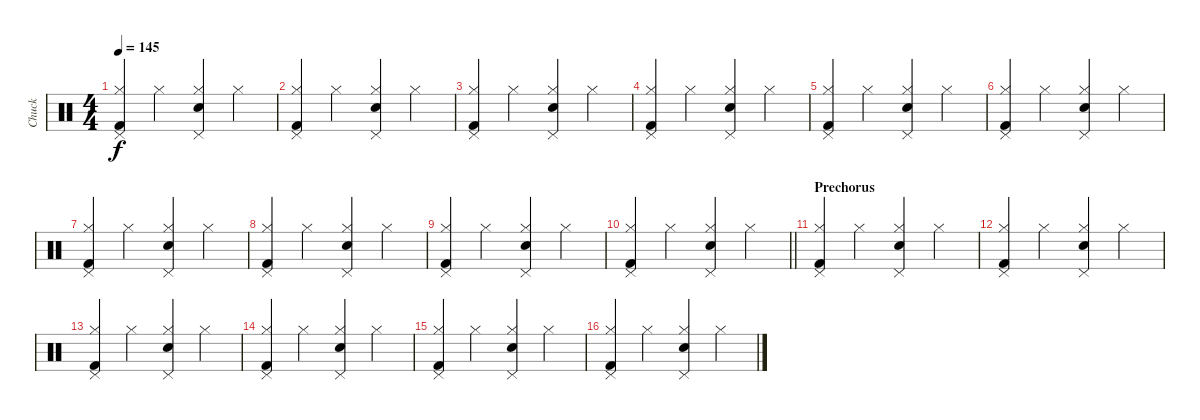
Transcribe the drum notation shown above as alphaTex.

\track ("Chuck" "Chuck") {instrument percussion}
\staff {score}
\articulation defaults
\ts (4 4)
\tempo 145
\clef neutral
\ks c
("Pedal Hi-Hat (hit)" "Hi-Hat (closed)" "Kick (hit) 2").4{dy f} "Hi-Hat (closed)".4 ("Pedal Hi-Hat (hit)" "Hi-Hat (closed)" "Snare (hit) 2").4 "Hi-Hat (closed)".4 |
("Pedal Hi-Hat (hit)" "Hi-Hat (closed)" "Kick (hit) 2").4 "Hi-Hat (closed)".4 ("Pedal Hi-Hat (hit)" "Hi-Hat (closed)" "Snare (hit) 2").4 "Hi-Hat (closed)".4 |
("Pedal Hi-Hat (hit)" "Hi-Hat (closed)" "Kick (hit) 2").4 "Hi-Hat (closed)".4 ("Pedal Hi-Hat (hit)" "Hi-Hat (closed)" "Snare (hit) 2").4 "Hi-Hat (closed)".4 |
("Pedal Hi-Hat (hit)" "Hi-Hat (closed)" "Kick (hit) 2").4 "Hi-Hat (closed)".4 ("Pedal Hi-Hat (hit)" "Hi-Hat (closed)" "Snare (hit) 2").4 "Hi-Hat (closed)".4 |
("Pedal Hi-Hat (hit)" "Hi-Hat (closed)" "Kick (hit) 2").4 "Hi-Hat (closed)".4 ("Pedal Hi-Hat (hit)" "Hi-Hat (closed)" "Snare (hit) 2").4 "Hi-Hat (closed)".4 |
("Pedal Hi-Hat (hit)" "Hi-Hat (closed)" "Kick (hit) 2").4 "Hi-Hat (closed)".4 ("Pedal Hi-Hat (hit)" "Hi-Hat (closed)" "Snare (hit) 2").4 "Hi-Hat (closed)".4 |
("Pedal Hi-Hat (hit)" "Hi-Hat (closed)" "Kick (hit) 2").4 "Hi-Hat (closed)".4 ("Pedal Hi-Hat (hit)" "Hi-Hat (closed)" "Snare (hit) 2").4 "Hi-Hat (closed)".4 |
("Pedal Hi-Hat (hit)" "Hi-Hat (closed)" "Kick (hit) 2").4 "Hi-Hat (closed)".4 ("Pedal Hi-Hat (hit)" "Hi-Hat (closed)" "Snare (hit) 2").4 "Hi-Hat (closed)".4 |
("Pedal Hi-Hat (hit)" "Hi-Hat (closed)" "Kick (hit) 2").4 "Hi-Hat (closed)".4 ("Pedal Hi-Hat (hit)" "Hi-Hat (closed)" "Snare (hit) 2").4 "Hi-Hat (closed)".4 |
\barLineRight lightlight
("Pedal Hi-Hat (hit)" "Hi-Hat (closed)" "Kick (hit) 2").4 "Hi-Hat (closed)".4 ("Pedal Hi-Hat (hit)" "Hi-Hat (closed)" "Snare (hit) 2").4 "Hi-Hat (closed)".4 |
\section ("" "Prechorus")
("Pedal Hi-Hat (hit)" "Hi-Hat (closed)" "Kick (hit) 2").4 "Hi-Hat (closed)".4 ("Pedal Hi-Hat (hit)" "Hi-Hat (closed)" "Snare (hit) 2").4 "Hi-Hat (closed)".4 |
("Pedal Hi-Hat (hit)" "Hi-Hat (closed)" "Kick (hit) 2").4 "Hi-Hat (closed)".4 ("Pedal Hi-Hat (hit)" "Hi-Hat (closed)" "Snare (hit) 2").4 "Hi-Hat (closed)".4 |
("Pedal Hi-Hat (hit)" "Hi-Hat (closed)" "Kick (hit) 2").4 "Hi-Hat (closed)".4 ("Pedal Hi-Hat (hit)" "Hi-Hat (closed)" "Snare (hit) 2").4 "Hi-Hat (closed)".4 |
("Pedal Hi-Hat (hit)" "Hi-Hat (closed)" "Kick (hit) 2").4 "Hi-Hat (closed)".4 ("Pedal Hi-Hat (hit)" "Hi-Hat (closed)" "Snare (hit) 2").4 "Hi-Hat (closed)".4 |
("Pedal Hi-Hat (hit)" "Hi-Hat (closed)" "Kick (hit) 2").4 "Hi-Hat (closed)".4 ("Pedal Hi-Hat (hit)" "Hi-Hat (closed)" "Snare (hit) 2").4 "Hi-Hat (closed)".4 |
("Pedal Hi-Hat (hit)" "Hi-Hat (closed)" "Kick (hit) 2").4 "Hi-Hat (closed)".4 ("Pedal Hi-Hat (hit)" "Hi-Hat (closed)" "Snare (hit) 2").4 "Hi-Hat (closed)".4
